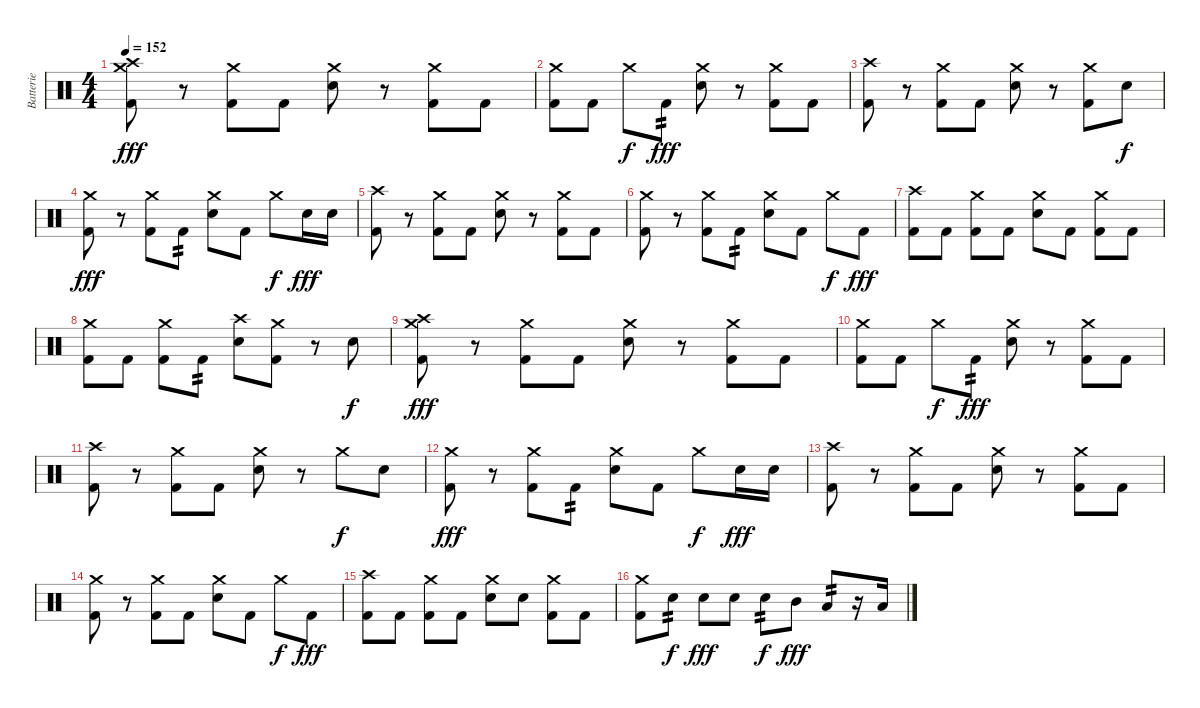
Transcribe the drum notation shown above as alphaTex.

\track ("Batterie" "Batterie") {instrument percussion}
\staff {score}
\articulation defaults
\ts (4 4)
\tempo 152
\clef neutral
\ks c
("Crash high (hit)" "Crash medium (hit)" "Kick (hit) 2").8{dy fff volume 10} r.8 ("Crash medium (hit)" "Kick (hit) 2").8 "Kick (hit) 2".8 ("Crash medium (hit)" "Electric Snare (hit)").8 r.8 ("Crash medium (hit)" "Kick (hit) 2").8 "Kick (hit) 2".8 |
("Crash medium (hit)" "Kick (hit) 2").8 "Kick (hit) 2".8 "Crash medium (hit)".8{dy f} "Kick (hit) 2".8{tp 2 dy fff} ("Crash medium (hit)" "Electric Snare (hit)").8 r.8 ("Crash medium (hit)" "Kick (hit) 2").8 "Kick (hit) 2".8 |
("Crash high (hit)" "Kick (hit) 2").8 r.8 ("Crash medium (hit)" "Kick (hit) 2").8 "Kick (hit) 2".8 ("Crash medium (hit)" "Electric Snare (hit)").8 r.8 ("Crash medium (hit)" "Kick (hit) 2").8 "Electric Snare (hit)".8{dy f} |
("Crash medium (hit)" "Kick (hit) 2").8{dy fff} r.8 ("Crash medium (hit)" "Kick (hit) 2").8 "Kick (hit) 2".8{tp 2} ("Crash medium (hit)" "Electric Snare (hit)").8 "Kick (hit) 2".8 "Crash medium (hit)".8{dy f} "Electric Snare (hit)".16{dy fff} "Electric Snare (hit)".16 |
("Crash high (hit)" "Kick (hit) 2").8{volume 7} r.8 ("Crash medium (hit)" "Kick (hit) 2").8 "Kick (hit) 2".8 ("Crash medium (hit)" "Electric Snare (hit)").8 r.8 ("Crash medium (hit)" "Kick (hit) 2").8 "Kick (hit) 2".8 |
("Crash medium (hit)" "Kick (hit) 2").8 r.8 ("Crash medium (hit)" "Kick (hit) 2").8 "Kick (hit) 2".8{tp 2} ("Crash medium (hit)" "Electric Snare (hit)").8 "Kick (hit) 2".8 "Crash medium (hit)".8{dy f} "Kick (hit) 2".8{dy fff} |
("Crash high (hit)" "Kick (hit) 2").8 "Kick (hit) 2".8 ("Crash medium (hit)" "Kick (hit) 2").8 "Kick (hit) 2".8 ("Crash medium (hit)" "Electric Snare (hit)").8 "Kick (hit) 2".8 ("Crash medium (hit)" "Kick (hit) 2").8 "Kick (hit) 2".8 |
("Crash medium (hit)" "Kick (hit) 2").8 "Kick (hit) 2".8 ("Crash medium (hit)" "Kick (hit) 2").8 "Kick (hit) 2".8{tp 2} ("Crash high (hit)" "Electric Snare (hit)").8 ("Crash medium (hit)" "Kick (hit) 2").8 r.8 "Electric Snare (hit)".8{dy f} |
("Crash high (hit)" "Crash medium (hit)" "Kick (hit) 2").8{dy fff volume 4} r.8 ("Crash medium (hit)" "Kick (hit) 2").8 "Kick (hit) 2".8 ("Crash medium (hit)" "Electric Snare (hit)").8 r.8 ("Crash medium (hit)" "Kick (hit) 2").8 "Kick (hit) 2".8 |
("Crash medium (hit)" "Kick (hit) 2").8 "Kick (hit) 2".8 "Crash medium (hit)".8{dy f} "Kick (hit) 2".8{tp 2 dy fff} ("Crash medium (hit)" "Electric Snare (hit)").8 r.8 ("Crash medium (hit)" "Kick (hit) 2").8 "Kick (hit) 2".8 |
("Crash high (hit)" "Kick (hit) 2").8 r.8 ("Crash medium (hit)" "Kick (hit) 2").8 "Kick (hit) 2".8 ("Crash medium (hit)" "Electric Snare (hit)").8 r.8 "Crash medium (hit)".8{dy f} "Electric Snare (hit)".8 |
("Crash medium (hit)" "Kick (hit) 2").8{dy fff} r.8 ("Crash medium (hit)" "Kick (hit) 2").8 "Kick (hit) 2".8{tp 2} ("Crash medium (hit)" "Electric Snare (hit)").8 "Kick (hit) 2".8 "Crash medium (hit)".8{dy f} "Electric Snare (hit)".16{dy fff} "Electric Snare (hit)".16 |
("Crash high (hit)" "Kick (hit) 2").8{volume 0} r.8 ("Crash medium (hit)" "Kick (hit) 2").8 "Kick (hit) 2".8 ("Crash medium (hit)" "Electric Snare (hit)").8 r.8 ("Crash medium (hit)" "Kick (hit) 2").8 "Kick (hit) 2".8 |
("Crash medium (hit)" "Kick (hit) 2").8 r.8 ("Crash medium (hit)" "Kick (hit) 2").8 "Kick (hit) 2".8 ("Crash medium (hit)" "Electric Snare (hit)").8 "Kick (hit) 2".8 "Crash medium (hit)".8{dy f} "Kick (hit) 2".8{dy fff} |
("Crash high (hit)" "Kick (hit) 2").8 "Kick (hit) 2".8 ("Crash medium (hit)" "Kick (hit) 2").8 "Kick (hit) 2".8 ("Crash medium (hit)" "Electric Snare (hit)").8 "Electric Snare (hit)".8 ("Crash medium (hit)" "Kick (hit) 2").8 "Kick (hit) 2".8 |
("Crash medium (hit)" "Kick (hit) 2").8 "Electric Snare (hit)".8{tp 2 dy f} "Electric Snare (hit)".8{dy fff} "Electric Snare (hit)".8 "Electric Snare (hit)".8{tp 2 dy f} "Mid Tom (hit)".8{dy fff} "Low Tom (hit)".8{tp 2} r.16 "Low Tom (hit)".16
